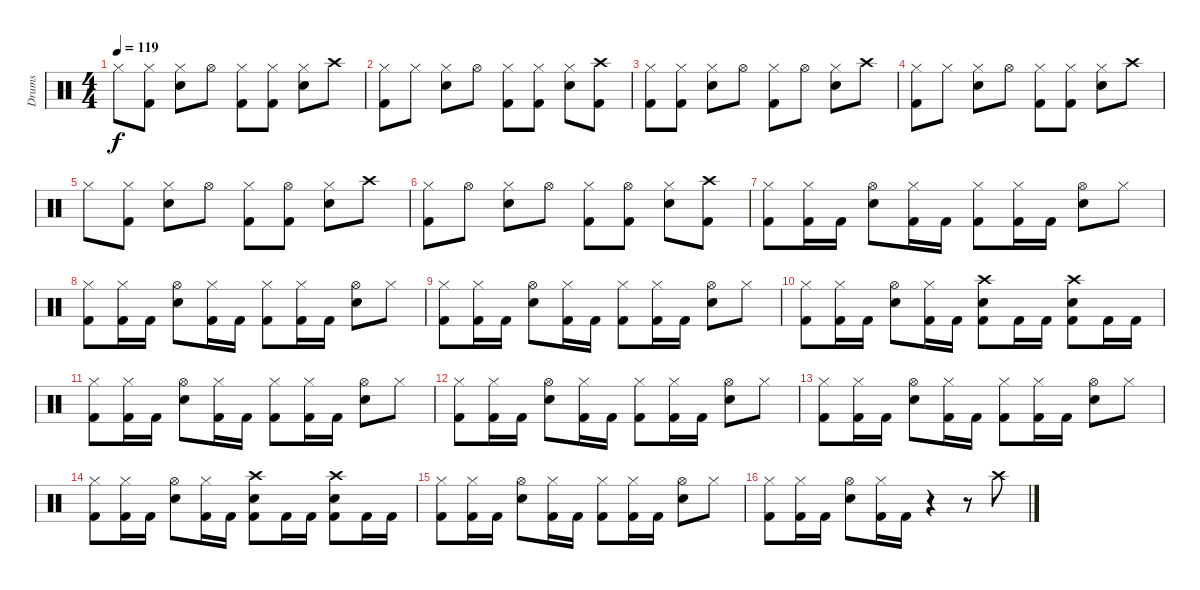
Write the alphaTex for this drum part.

\track ("Drums" "Drums") {instrument percussion}
\staff {score}
\articulation defaults
\ts (4 4)
\tempo 119
\clef neutral
\ks c "Hi-Hat (closed)".8{dy f}
("Hi-Hat (closed)" "Kick (hit) 2").8 ("Hi-Hat (closed)" "Snare (hit) 2").8 "Hi-Hat (open)".8 ("Hi-Hat (closed)" "Kick (hit) 2").8 ("Hi-Hat (closed)" "Kick (hit) 2").8 ("Hi-Hat (closed)" "Snare (hit) 2").8 "Crash high (hit)".8 |
("Hi-Hat (closed)" "Kick (hit) 2").8 "Hi-Hat (closed)".8 ("Hi-Hat (closed)" "Snare (hit) 2").8 "Hi-Hat (open)".8 ("Hi-Hat (closed)" "Kick (hit) 2").8 ("Hi-Hat (closed)" "Kick (hit) 2").8 ("Hi-Hat (closed)" "Snare (hit) 2").8 ("Crash high (hit)" "Kick (hit) 2").8 |
("Hi-Hat (closed)" "Kick (hit) 2").8 ("Hi-Hat (closed)" "Kick (hit) 2").8 ("Hi-Hat (closed)" "Snare (hit) 2").8 "Hi-Hat (open)".8 ("Hi-Hat (closed)" "Kick (hit) 2").8 "Hi-Hat (open)".8 ("Hi-Hat (closed)" "Snare (hit) 2").8 "Crash high (hit)".8 |
("Hi-Hat (closed)" "Kick (hit) 2").8 "Hi-Hat (closed)".8 ("Hi-Hat (closed)" "Snare (hit) 2").8 "Hi-Hat (open)".8 ("Hi-Hat (closed)" "Kick (hit) 2").8 ("Hi-Hat (closed)" "Kick (hit) 2").8 ("Hi-Hat (closed)" "Snare (hit) 2").8 "Crash high (hit)".8 |
"Hi-Hat (closed)".8 ("Hi-Hat (closed)" "Kick (hit) 2").8 ("Hi-Hat (closed)" "Snare (hit) 2").8 "Hi-Hat (open)".8 ("Hi-Hat (closed)" "Kick (hit) 2").8 ("Hi-Hat (open)" "Kick (hit) 2").8 ("Hi-Hat (closed)" "Snare (hit) 2").8 "Crash high (hit)".8 |
("Hi-Hat (closed)" "Kick (hit) 2").8 "Hi-Hat (open)".8 ("Hi-Hat (closed)" "Snare (hit) 2").8 "Hi-Hat (open)".8 ("Hi-Hat (closed)" "Kick (hit) 2").8 ("Hi-Hat (open)" "Kick (hit) 2").8 ("Hi-Hat (closed)" "Snare (hit) 2").8 ("Crash high (hit)" "Kick (hit) 2").8 |
("Hi-Hat (closed)" "Kick (hit) 2").8 ("Hi-Hat (closed)" "Kick (hit) 2").16 "Kick (hit) 2".16 ("Hi-Hat (open)" "Snare (hit) 2").8 ("Hi-Hat (closed)" "Kick (hit) 2").16 "Kick (hit) 2".16 ("Hi-Hat (closed)" "Kick (hit) 2").8 ("Hi-Hat (closed)" "Kick (hit) 2").16 "Kick (hit) 2".16 ("Hi-Hat (open)" "Snare (hit) 2").8 "Hi-Hat (closed)".8 |
("Hi-Hat (closed)" "Kick (hit) 2").8 ("Hi-Hat (closed)" "Kick (hit) 2").16 "Kick (hit) 2".16 ("Hi-Hat (open)" "Snare (hit) 2").8 ("Hi-Hat (closed)" "Kick (hit) 2").16 "Kick (hit) 2".16 ("Hi-Hat (closed)" "Kick (hit) 2").8 ("Hi-Hat (closed)" "Kick (hit) 2").16 "Kick (hit) 2".16 ("Hi-Hat (open)" "Snare (hit) 2").8 "Hi-Hat (closed)".8 |
("Hi-Hat (closed)" "Kick (hit) 2").8 ("Hi-Hat (closed)" "Kick (hit) 2").16 "Kick (hit) 2".16 ("Hi-Hat (open)" "Snare (hit) 2").8 ("Hi-Hat (closed)" "Kick (hit) 2").16 "Kick (hit) 2".16 ("Hi-Hat (closed)" "Kick (hit) 2").8 ("Hi-Hat (closed)" "Kick (hit) 2").16 "Kick (hit) 2".16 ("Hi-Hat (open)" "Snare (hit) 2").8 "Hi-Hat (closed)".8 |
("Hi-Hat (closed)" "Kick (hit) 2").8 ("Hi-Hat (closed)" "Kick (hit) 2").16 "Kick (hit) 2".16 ("Hi-Hat (open)" "Snare (hit) 2").8 ("Hi-Hat (closed)" "Kick (hit) 2").16 "Kick (hit) 2".16 ("Crash high (hit)" "Kick (hit) 2" "Snare (hit) 2").8 "Kick (hit) 2".16 "Kick (hit) 2".16 ("Crash high (hit)" "Kick (hit) 2" "Snare (hit) 2").8 "Kick (hit) 2".16 "Kick (hit) 2".16 |
("Hi-Hat (closed)" "Kick (hit) 2").8 ("Hi-Hat (closed)" "Kick (hit) 2").16 "Kick (hit) 2".16 ("Hi-Hat (open)" "Snare (hit) 2").8 ("Hi-Hat (closed)" "Kick (hit) 2").16 "Kick (hit) 2".16 ("Hi-Hat (closed)" "Kick (hit) 2").8 ("Hi-Hat (closed)" "Kick (hit) 2").16 "Kick (hit) 2".16 ("Hi-Hat (open)" "Snare (hit) 2").8 "Hi-Hat (closed)".8 |
("Hi-Hat (closed)" "Kick (hit) 2").8 ("Hi-Hat (closed)" "Kick (hit) 2").16 "Kick (hit) 2".16 ("Hi-Hat (open)" "Snare (hit) 2").8 ("Hi-Hat (closed)" "Kick (hit) 2").16 "Kick (hit) 2".16 ("Hi-Hat (closed)" "Kick (hit) 2").8 ("Hi-Hat (closed)" "Kick (hit) 2").16 "Kick (hit) 2".16 ("Hi-Hat (open)" "Snare (hit) 2").8 "Hi-Hat (closed)".8 |
("Hi-Hat (closed)" "Kick (hit) 2").8 ("Hi-Hat (closed)" "Kick (hit) 2").16 "Kick (hit) 2".16 ("Hi-Hat (open)" "Snare (hit) 2").8 ("Hi-Hat (closed)" "Kick (hit) 2").16 "Kick (hit) 2".16 ("Hi-Hat (closed)" "Kick (hit) 2").8 ("Hi-Hat (closed)" "Kick (hit) 2").16 "Kick (hit) 2".16 ("Hi-Hat (open)" "Snare (hit) 2").8 "Hi-Hat (closed)".8 |
("Hi-Hat (closed)" "Kick (hit) 2").8 ("Hi-Hat (closed)" "Kick (hit) 2").16 "Kick (hit) 2".16 ("Hi-Hat (open)" "Snare (hit) 2").8 ("Hi-Hat (closed)" "Kick (hit) 2").16 "Kick (hit) 2".16 ("Crash high (hit)" "Kick (hit) 2" "Snare (hit) 2").8 "Kick (hit) 2".16 "Kick (hit) 2".16 ("Crash high (hit)" "Kick (hit) 2" "Snare (hit) 2").8 "Kick (hit) 2".16 "Kick (hit) 2".16 |
("Hi-Hat (closed)" "Kick (hit) 2").8 ("Hi-Hat (closed)" "Kick (hit) 2").16 "Kick (hit) 2".16 ("Hi-Hat (open)" "Snare (hit) 2").8 ("Hi-Hat (closed)" "Kick (hit) 2").16 "Kick (hit) 2".16 ("Hi-Hat (closed)" "Kick (hit) 2").8 ("Hi-Hat (closed)" "Kick (hit) 2").16 "Kick (hit) 2".16 ("Hi-Hat (open)" "Snare (hit) 2").8 "Hi-Hat (closed)".8 |
("Hi-Hat (closed)" "Kick (hit) 2").8 ("Hi-Hat (closed)" "Kick (hit) 2").16 "Kick (hit) 2".16 ("Hi-Hat (open)" "Snare (hit) 2").8 ("Hi-Hat (closed)" "Kick (hit) 2").16 "Kick (hit) 2".16 r.4 r.8 "Crash high (hit)".8
